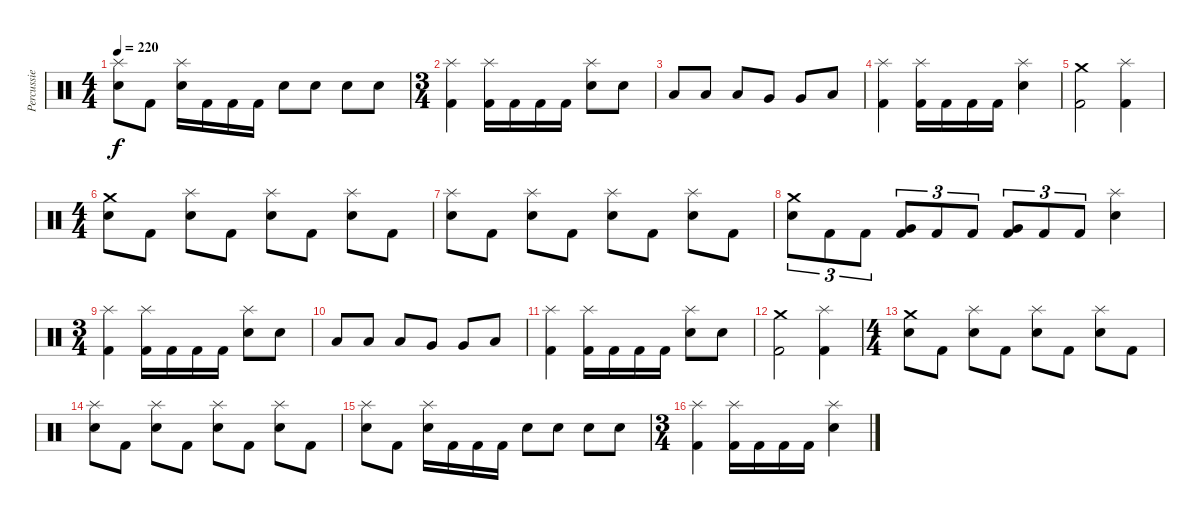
\track ("Percussie" "Percussie") {instrument percussion}
\staff {score}
\articulation defaults
\ts (4 4)
\tempo 220
\clef neutral
\ks c
("Splash (hit)" "Electric Snare (hit)").8{dy f} "Kick (hit) 2".8 ("Splash (hit)" "Electric Snare (hit)").16 "Kick (hit) 2".16 "Kick (hit) 2".16 "Kick (hit) 2".16 "Electric Snare (hit)".8 "Electric Snare (hit)".8 "Electric Snare (hit)".8 "Electric Snare (hit)".8 |
\ts (3 4)
("Splash (hit)" "Kick (hit) 2").4 ("Splash (hit)" "Kick (hit) 2").16 "Kick (hit) 2".16 "Kick (hit) 2".16 "Kick (hit) 2".16 ("Splash (hit)" "Electric Snare (hit)").8 "Electric Snare (hit)".8 |
"Low Tom (hit)".8 "Low Tom (hit)".8 "Low Tom (hit)".8 "Very Low Tom (hit)".8 "Very Low Tom (hit)".8 "Low Floor Tom (hit)".8 |
("Splash (hit)" "Kick (hit) 2").4 ("Splash (hit)" "Kick (hit) 2").16 "Kick (hit) 2".16 "Kick (hit) 2".16 "Kick (hit) 2".16 ("Splash (hit)" "Electric Snare (hit)").4 |
("Crash medium (hit)" "Kick (hit) 2").2 ("Splash (hit)" "Kick (hit) 2").4 |
\ts (4 4)
("Crash medium (hit)" "Electric Snare (hit)").8 "Kick (hit) 2".8 ("Splash (hit)" "Electric Snare (hit)").8 "Kick (hit) 2".8 ("Splash (hit)" "Electric Snare (hit)").8 "Kick (hit) 2".8 ("Splash (hit)" "Electric Snare (hit)").8 "Kick (hit) 2".8 |
("Splash (hit)" "Electric Snare (hit)").8 "Kick (hit) 2".8 ("Splash (hit)" "Electric Snare (hit)").8 "Kick (hit) 2".8 ("Splash (hit)" "Electric Snare (hit)").8 "Kick (hit) 2".8 ("Splash (hit)" "Electric Snare (hit)").8 "Kick (hit) 2".8 |
("Crash medium (hit)" "Electric Snare (hit)").8{tu (3 2)} "Kick (hit) 2".8{tu (3 2)} "Kick (hit) 2".8{tu (3 2)} ("Very Low Tom (hit)" "Kick (hit) 2").8{tu (3 2)} "Kick (hit) 2".8{tu (3 2)} "Kick (hit) 2".8{tu (3 2)} ("Very Low Tom (hit)" "Kick (hit) 2").8{tu (3 2)} "Kick (hit) 2".8{tu (3 2)} "Kick (hit) 2".8{tu (3 2)} ("Splash (hit)" "Electric Snare (hit)").4 |
\ts (3 4)
("Splash (hit)" "Kick (hit) 2").4 ("Splash (hit)" "Kick (hit) 2").16 "Kick (hit) 2".16 "Kick (hit) 2".16 "Kick (hit) 2".16 ("Splash (hit)" "Electric Snare (hit)").8 "Electric Snare (hit)".8 |
"Low Tom (hit)".8 "Low Tom (hit)".8 "Low Tom (hit)".8 "Very Low Tom (hit)".8 "Very Low Tom (hit)".8 "Low Floor Tom (hit)".8 |
("Splash (hit)" "Kick (hit) 2").4 ("Splash (hit)" "Kick (hit) 2").16 "Kick (hit) 2".16 "Kick (hit) 2".16 "Kick (hit) 2".16 ("Splash (hit)" "Electric Snare (hit)").8 "Electric Snare (hit)".8 |
("Crash medium (hit)" "Kick (hit) 2").2 ("Splash (hit)" "Kick (hit) 2").4 |
\ts (4 4)
("Crash medium (hit)" "Electric Snare (hit)").8 "Kick (hit) 2".8 ("Splash (hit)" "Electric Snare (hit)").8 "Kick (hit) 2".8 ("Splash (hit)" "Electric Snare (hit)").8 "Kick (hit) 2".8 ("Splash (hit)" "Electric Snare (hit)").8 "Kick (hit) 2".8 |
("Splash (hit)" "Electric Snare (hit)").8 "Kick (hit) 2".8 ("Splash (hit)" "Electric Snare (hit)").8 "Kick (hit) 2".8 ("Splash (hit)" "Electric Snare (hit)").8 "Kick (hit) 2".8 ("Splash (hit)" "Electric Snare (hit)").8 "Kick (hit) 2".8 |
("Splash (hit)" "Electric Snare (hit)").8 "Kick (hit) 2".8 ("Splash (hit)" "Electric Snare (hit)").16 "Kick (hit) 2".16 "Kick (hit) 2".16 "Kick (hit) 2".16 "Electric Snare (hit)".8 "Electric Snare (hit)".8 "Electric Snare (hit)".8 "Electric Snare (hit)".8 |
\ts (3 4)
("Splash (hit)" "Kick (hit) 2").4 ("Splash (hit)" "Kick (hit) 2").16 "Kick (hit) 2".16 "Kick (hit) 2".16 "Kick (hit) 2".16 ("Splash (hit)" "Electric Snare (hit)").4
